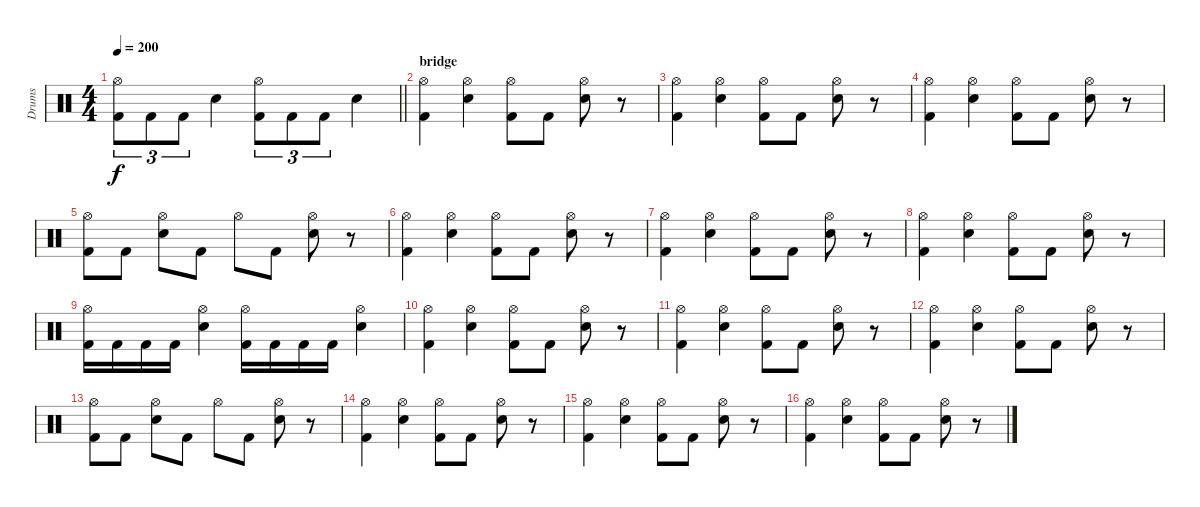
\track ("Drums" "Drums") {instrument percussion}
\staff {score}
\articulation defaults
\ts (4 4)
\tempo 200
\clef neutral
\barLineRight lightlight
\ks c
("Hi-Hat (open)" "Kick (hit) 2").8{tu (3 2) dy f} "Kick (hit) 2".8{tu (3 2)} "Kick (hit) 2".8{tu (3 2)} "Electric Snare (hit)".4 ("Hi-Hat (open)" "Kick (hit) 2").8{tu (3 2)} "Kick (hit) 2".8{tu (3 2)} "Kick (hit) 2".8{tu (3 2)} "Electric Snare (hit)".4 |
\section ("" "bridge")
("Hi-Hat (open)" "Kick (hit) 2").4 ("Hi-Hat (open)" "Electric Snare (hit)").4 ("Hi-Hat (open)" "Kick (hit) 2").8 "Kick (hit) 2".8 ("Hi-Hat (open)" "Electric Snare (hit)").8 r.8 |
("Hi-Hat (open)" "Kick (hit) 2").4 ("Hi-Hat (open)" "Electric Snare (hit)").4 ("Hi-Hat (open)" "Kick (hit) 2").8 "Kick (hit) 2".8 ("Hi-Hat (open)" "Electric Snare (hit)").8 r.8 |
("Hi-Hat (open)" "Kick (hit) 2").4 ("Hi-Hat (open)" "Electric Snare (hit)").4 ("Hi-Hat (open)" "Kick (hit) 2").8 "Kick (hit) 2".8 ("Hi-Hat (open)" "Electric Snare (hit)").8 r.8 |
("Hi-Hat (open)" "Kick (hit) 2").8 "Kick (hit) 2".8 ("Hi-Hat (open)" "Electric Snare (hit)").8 "Kick (hit) 2".8 "Hi-Hat (open)".8 "Kick (hit) 2".8 ("Hi-Hat (open)" "Electric Snare (hit)").8 r.8 |
("Hi-Hat (open)" "Kick (hit) 2").4 ("Hi-Hat (open)" "Electric Snare (hit)").4 ("Hi-Hat (open)" "Kick (hit) 2").8 "Kick (hit) 2".8 ("Hi-Hat (open)" "Electric Snare (hit)").8 r.8 |
("Hi-Hat (open)" "Kick (hit) 2").4 ("Hi-Hat (open)" "Electric Snare (hit)").4 ("Hi-Hat (open)" "Kick (hit) 2").8 "Kick (hit) 2".8 ("Hi-Hat (open)" "Electric Snare (hit)").8 r.8 |
("Hi-Hat (open)" "Kick (hit) 2").4 ("Hi-Hat (open)" "Electric Snare (hit)").4 ("Hi-Hat (open)" "Kick (hit) 2").8 "Kick (hit) 2".8 ("Hi-Hat (open)" "Electric Snare (hit)").8 r.8 |
("Hi-Hat (open)" "Kick (hit) 2").16 "Kick (hit) 2".16 "Kick (hit) 2".16 "Kick (hit) 2".16 ("Hi-Hat (open)" "Electric Snare (hit)").4 ("Hi-Hat (open)" "Kick (hit) 2").16 "Kick (hit) 2".16 "Kick (hit) 2".16 "Kick (hit) 2".16 ("Hi-Hat (open)" "Electric Snare (hit)").4 |
("Hi-Hat (open)" "Kick (hit) 2").4 ("Hi-Hat (open)" "Electric Snare (hit)").4 ("Hi-Hat (open)" "Kick (hit) 2").8 "Kick (hit) 2".8 ("Hi-Hat (open)" "Electric Snare (hit)").8 r.8 |
("Hi-Hat (open)" "Kick (hit) 2").4 ("Hi-Hat (open)" "Electric Snare (hit)").4 ("Hi-Hat (open)" "Kick (hit) 2").8 "Kick (hit) 2".8 ("Hi-Hat (open)" "Electric Snare (hit)").8 r.8 |
("Hi-Hat (open)" "Kick (hit) 2").4 ("Hi-Hat (open)" "Electric Snare (hit)").4 ("Hi-Hat (open)" "Kick (hit) 2").8 "Kick (hit) 2".8 ("Hi-Hat (open)" "Electric Snare (hit)").8 r.8 |
("Hi-Hat (open)" "Kick (hit) 2").8 "Kick (hit) 2".8 ("Hi-Hat (open)" "Electric Snare (hit)").8 "Kick (hit) 2".8 "Hi-Hat (open)".8 "Kick (hit) 2".8 ("Hi-Hat (open)" "Electric Snare (hit)").8 r.8 |
("Hi-Hat (open)" "Kick (hit) 2").4 ("Hi-Hat (open)" "Electric Snare (hit)").4 ("Hi-Hat (open)" "Kick (hit) 2").8 "Kick (hit) 2".8 ("Hi-Hat (open)" "Electric Snare (hit)").8 r.8 |
("Hi-Hat (open)" "Kick (hit) 2").4 ("Hi-Hat (open)" "Electric Snare (hit)").4 ("Hi-Hat (open)" "Kick (hit) 2").8 "Kick (hit) 2".8 ("Hi-Hat (open)" "Electric Snare (hit)").8 r.8 |
("Hi-Hat (open)" "Kick (hit) 2").4 ("Hi-Hat (open)" "Electric Snare (hit)").4 ("Hi-Hat (open)" "Kick (hit) 2").8 "Kick (hit) 2".8 ("Hi-Hat (open)" "Electric Snare (hit)").8 r.8
